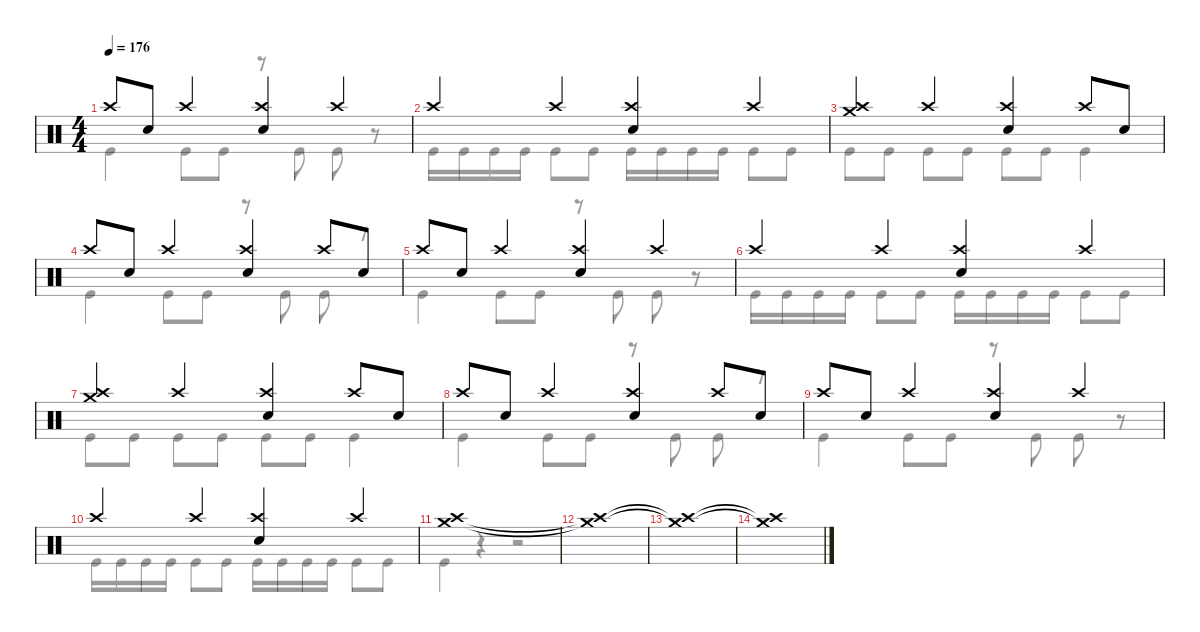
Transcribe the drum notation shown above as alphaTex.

\defaultSystemsLayout 4
\hideDynamics
\bracketExtendMode nobrackets
\singleTrackTrackNamePolicy hidden
\multiTrackTrackNamePolicy hidden
\firstSystemTrackNameMode fullname
\firstSystemTrackNameOrientation horizontal
\otherSystemsTrackNameOrientation horizontal
\track ("Drums" "drm.") {instrument percussion}
\staff {score}
\articulation defaults
\voice
\ts (4 4)
\tempo 176
\clef neutral
\ks c "Crash high (hit)".8{dy f beam Up} "Snare (hit) 2".8{beam Up} "Crash high (hit)".4{beam Up}
("Crash high (hit)" "Snare (hit) 2").4{beam Up} "Crash high (hit)".4{beam Up} |
"Crash high (hit)".4{beam Up} "Crash high (hit)".4{beam Up} ("Crash high (hit)" "Snare (hit) 2").4{beam Up} "Crash high (hit)".4{beam Up} |
("Crash medium (hit)" "Crash high (hit)").4{beam Up} "Crash high (hit)".4{beam Up} ("Crash high (hit)" "Snare (hit) 2").4{beam Up} "Crash high (hit)".8{beam Up} "Snare (hit) 2".8{beam Up} |
"Crash high (hit)".8{beam Up} "Snare (hit) 2".8{beam Up} "Crash high (hit)".4{beam Up} ("Crash high (hit)" "Snare (hit) 2").4{beam Up} "Crash high (hit)".8{beam Up} "Snare (hit) 2".8{beam Up} |
"Crash high (hit)".8{beam Up} "Snare (hit) 2".8{beam Up} "Crash high (hit)".4{beam Up} ("Crash high (hit)" "Snare (hit) 2").4{beam Up} "Crash high (hit)".4{beam Up} |
"Crash high (hit)".4{beam Up} "Crash high (hit)".4{beam Up} ("Crash high (hit)" "Snare (hit) 2").4{beam Up} "Crash high (hit)".4{beam Up} |
("Crash medium (hit)" "Crash high (hit)").4{beam Up} "Crash high (hit)".4{beam Up} ("Crash high (hit)" "Snare (hit) 2").4{beam Up} "Crash high (hit)".8{beam Up} "Snare (hit) 2".8{beam Up} |
"Crash high (hit)".8{beam Up} "Snare (hit) 2".8{beam Up} "Crash high (hit)".4{beam Up} ("Crash high (hit)" "Snare (hit) 2").4{beam Up} "Crash high (hit)".8{beam Up} "Snare (hit) 2".8{beam Up} |
"Crash high (hit)".8{beam Up} "Snare (hit) 2".8{beam Up} "Crash high (hit)".4{beam Up} ("Crash high (hit)" "Snare (hit) 2").4{beam Up} "Crash high (hit)".4{beam Up} |
"Crash high (hit)".4{beam Up} "Crash high (hit)".4{beam Up} ("Crash high (hit)" "Snare (hit) 2").4{beam Up} "Crash high (hit)".4{beam Up} |
("Crash medium (hit)" "Crash high (hit)").1{beam Up} |
("Crash medium (hit)"{t} "Crash high (hit)"{t}).1{dy mf beam Down} |
("Crash medium (hit)"{t} "Crash high (hit)"{t}).1{beam Down} |
("Crash medium (hit)"{t} "Crash high (hit)"{t}).1{beam Down}
\voice
\clef neutral
\ottava regular
\simile none
\ks c "Kick (hit)".4{dy f beam Down} "Kick (hit)".8{beam Down} "Kick (hit)".8{beam Down}
r.8{beam Down} "Kick (hit)".8{beam Down} "Kick (hit)".8{beam Down} r.8{beam Down} |
"Kick (hit)".16{beam Down} "Kick (hit)".16{beam Down} "Kick (hit)".16{beam Down} "Kick (hit)".16{beam Down} "Kick (hit)".8{beam Down} "Kick (hit)".8{beam Down} "Kick (hit)".16{beam Down} "Kick (hit)".16{beam Down} "Kick (hit)".16{beam Down} "Kick (hit)".16{beam Down} "Kick (hit)".8{beam Down} "Kick (hit)".8{beam Down} |
"Kick (hit)".8{beam Down} "Kick (hit)".8{beam Down} "Kick (hit)".8{beam Down} "Kick (hit)".8{beam Down} "Kick (hit)".8{beam Down} "Kick (hit)".8{beam Down} "Kick (hit)".4{beam Down} |
"Kick (hit)".4{beam Down} "Kick (hit)".8{beam Down} "Kick (hit)".8{beam Down} r.8{beam Down} "Kick (hit)".8{beam Down} "Kick (hit)".8{beam Down} r.8{beam Down} |
"Kick (hit)".4{beam Down} "Kick (hit)".8{beam Down} "Kick (hit)".8{beam Down} r.8{beam Down} "Kick (hit)".8{beam Down} "Kick (hit)".8{beam Down} r.8{beam Down} |
"Kick (hit)".16{beam Down} "Kick (hit)".16{beam Down} "Kick (hit)".16{beam Down} "Kick (hit)".16{beam Down} "Kick (hit)".8{beam Down} "Kick (hit)".8{beam Down} "Kick (hit)".16{beam Down} "Kick (hit)".16{beam Down} "Kick (hit)".16{beam Down} "Kick (hit)".16{beam Down} "Kick (hit)".8{beam Down} "Kick (hit)".8{beam Down} |
"Kick (hit)".8{beam Down} "Kick (hit)".8{beam Down} "Kick (hit)".8{beam Down} "Kick (hit)".8{beam Down} "Kick (hit)".8{beam Down} "Kick (hit)".8{beam Down} "Kick (hit)".4{beam Down} |
"Kick (hit)".4{beam Down} "Kick (hit)".8{beam Down} "Kick (hit)".8{beam Down} r.8{beam Down} "Kick (hit)".8{beam Down} "Kick (hit)".8{beam Down} r.8{beam Down} |
"Kick (hit)".4{beam Down} "Kick (hit)".8{beam Down} "Kick (hit)".8{beam Down} r.8{beam Down} "Kick (hit)".8{beam Down} "Kick (hit)".8{beam Down} r.8{beam Down} |
"Kick (hit)".16{beam Down} "Kick (hit)".16{beam Down} "Kick (hit)".16{beam Down} "Kick (hit)".16{beam Down} "Kick (hit)".8{beam Down} "Kick (hit)".8{beam Down} "Kick (hit)".16{beam Down} "Kick (hit)".16{beam Down} "Kick (hit)".16{beam Down} "Kick (hit)".16{beam Down} "Kick (hit)".8{beam Down} "Kick (hit)".8{beam Down} |
"Kick (hit)".4{beam Down} r.4{beam Down} r.2{beam Down} |
|
|
